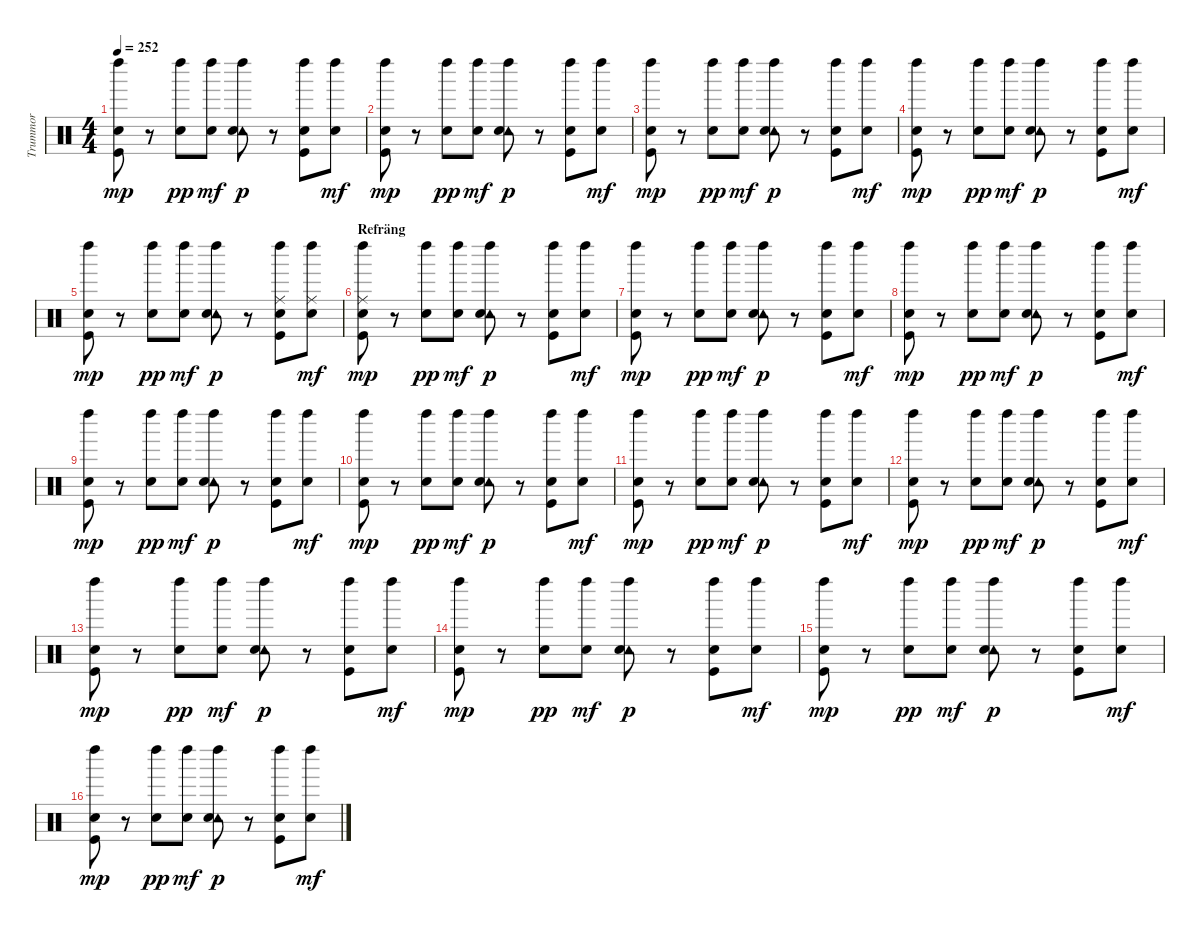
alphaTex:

\track ("Trummor" "Trummor") {instrument percussion}
\staff {score}
\articulation defaults
\ts (4 4)
\tempo 252
\clef neutral
\ks c
("Left Maraca (hit)" "Snare (hit) 2" "Kick (hit)").8{dy mp} r.8 ("Left Maraca (hit)" "Snare (hit) 2").8{dy pp} ("Left Maraca (hit)" "Snare (hit) 2").8{dy mf} ("Left Maraca (hit)" "Tambourine (hit)" "Snare (hit) 2").8{dy p} r.8 ("Left Maraca (hit)" "Snare (hit) 2" "Kick (hit)").8 ("Left Maraca (hit)" "Snare (hit) 2").8{dy mf} |
("Left Maraca (hit)" "Snare (hit) 2" "Kick (hit)").8{dy mp} r.8 ("Left Maraca (hit)" "Snare (hit) 2").8{dy pp} ("Left Maraca (hit)" "Snare (hit) 2").8{dy mf} ("Left Maraca (hit)" "Tambourine (hit)" "Snare (hit) 2").8{dy p} r.8 ("Left Maraca (hit)" "Snare (hit) 2" "Kick (hit)").8 ("Left Maraca (hit)" "Snare (hit) 2").8{dy mf} |
("Left Maraca (hit)" "Snare (hit) 2" "Kick (hit)").8{dy mp} r.8 ("Left Maraca (hit)" "Snare (hit) 2").8{dy pp} ("Left Maraca (hit)" "Snare (hit) 2").8{dy mf} ("Left Maraca (hit)" "Tambourine (hit)" "Snare (hit) 2").8{dy p} r.8 ("Left Maraca (hit)" "Snare (hit) 2" "Kick (hit)").8 ("Left Maraca (hit)" "Snare (hit) 2").8{dy mf} |
("Left Maraca (hit)" "Snare (hit) 2" "Kick (hit)").8{dy mp} r.8 ("Left Maraca (hit)" "Snare (hit) 2").8{dy pp} ("Left Maraca (hit)" "Snare (hit) 2").8{dy mf} ("Left Maraca (hit)" "Tambourine (hit)" "Snare (hit) 2").8{dy p} r.8 ("Left Maraca (hit)" "Snare (hit) 2" "Kick (hit)").8 ("Left Maraca (hit)" "Snare (hit) 2").8{dy mf} |
("Left Maraca (hit)" "Snare (hit) 2" "Kick (hit)").8{dy mp} r.8 ("Left Maraca (hit)" "Snare (hit) 2").8{dy pp} ("Left Maraca (hit)" "Snare (hit) 2").8{dy mf} ("Left Maraca (hit)" "Tambourine (hit)" "Snare (hit) 2").8{dy p} r.8 ("Left Maraca (hit)" "Ride (middle)" "Snare (hit) 2" "Kick (hit)").8 ("Left Maraca (hit)" "Ride (middle)" "Snare (hit) 2").8{dy mf} |
\section ("" "Refräng")
("Left Maraca (hit)" "Ride (middle)" "Snare (hit) 2" "Kick (hit)").8{dy mp} r.8 ("Left Maraca (hit)" "Snare (hit) 2").8{dy pp} ("Left Maraca (hit)" "Snare (hit) 2").8{dy mf} ("Left Maraca (hit)" "Tambourine (hit)" "Snare (hit) 2").8{dy p} r.8 ("Left Maraca (hit)" "Snare (hit) 2" "Kick (hit)").8 ("Left Maraca (hit)" "Snare (hit) 2").8{dy mf} |
("Left Maraca (hit)" "Snare (hit) 2" "Kick (hit)").8{dy mp} r.8 ("Left Maraca (hit)" "Snare (hit) 2").8{dy pp} ("Left Maraca (hit)" "Snare (hit) 2").8{dy mf} ("Left Maraca (hit)" "Tambourine (hit)" "Snare (hit) 2").8{dy p} r.8 ("Left Maraca (hit)" "Snare (hit) 2" "Kick (hit)").8 ("Left Maraca (hit)" "Snare (hit) 2").8{dy mf} |
("Left Maraca (hit)" "Snare (hit) 2" "Kick (hit)").8{dy mp} r.8 ("Left Maraca (hit)" "Snare (hit) 2").8{dy pp} ("Left Maraca (hit)" "Snare (hit) 2").8{dy mf} ("Left Maraca (hit)" "Tambourine (hit)" "Snare (hit) 2").8{dy p} r.8 ("Left Maraca (hit)" "Snare (hit) 2" "Kick (hit)").8 ("Left Maraca (hit)" "Snare (hit) 2").8{dy mf} |
("Left Maraca (hit)" "Snare (hit) 2" "Kick (hit)").8{dy mp} r.8 ("Left Maraca (hit)" "Snare (hit) 2").8{dy pp} ("Left Maraca (hit)" "Snare (hit) 2").8{dy mf} ("Left Maraca (hit)" "Tambourine (hit)" "Snare (hit) 2").8{dy p} r.8 ("Left Maraca (hit)" "Snare (hit) 2" "Kick (hit)").8 ("Left Maraca (hit)" "Snare (hit) 2").8{dy mf} |
("Left Maraca (hit)" "Snare (hit) 2" "Kick (hit)").8{dy mp} r.8 ("Left Maraca (hit)" "Snare (hit) 2").8{dy pp} ("Left Maraca (hit)" "Snare (hit) 2").8{dy mf} ("Left Maraca (hit)" "Tambourine (hit)" "Snare (hit) 2").8{dy p} r.8 ("Left Maraca (hit)" "Snare (hit) 2" "Kick (hit)").8 ("Left Maraca (hit)" "Snare (hit) 2").8{dy mf} |
("Left Maraca (hit)" "Snare (hit) 2" "Kick (hit)").8{dy mp} r.8 ("Left Maraca (hit)" "Snare (hit) 2").8{dy pp} ("Left Maraca (hit)" "Snare (hit) 2").8{dy mf} ("Left Maraca (hit)" "Tambourine (hit)" "Snare (hit) 2").8{dy p} r.8 ("Left Maraca (hit)" "Snare (hit) 2" "Kick (hit)").8 ("Left Maraca (hit)" "Snare (hit) 2").8{dy mf} |
("Left Maraca (hit)" "Snare (hit) 2" "Kick (hit)").8{dy mp} r.8 ("Left Maraca (hit)" "Snare (hit) 2").8{dy pp} ("Left Maraca (hit)" "Snare (hit) 2").8{dy mf} ("Left Maraca (hit)" "Tambourine (hit)" "Snare (hit) 2").8{dy p} r.8 ("Left Maraca (hit)" "Snare (hit) 2" "Kick (hit)").8 ("Left Maraca (hit)" "Snare (hit) 2").8{dy mf} |
("Left Maraca (hit)" "Snare (hit) 2" "Kick (hit)").8{dy mp} r.8 ("Left Maraca (hit)" "Snare (hit) 2").8{dy pp} ("Left Maraca (hit)" "Snare (hit) 2").8{dy mf} ("Left Maraca (hit)" "Tambourine (hit)" "Snare (hit) 2").8{dy p} r.8 ("Left Maraca (hit)" "Snare (hit) 2" "Kick (hit)").8 ("Left Maraca (hit)" "Snare (hit) 2").8{dy mf} |
("Left Maraca (hit)" "Snare (hit) 2" "Kick (hit)").8{dy mp} r.8 ("Left Maraca (hit)" "Snare (hit) 2").8{dy pp} ("Left Maraca (hit)" "Snare (hit) 2").8{dy mf} ("Left Maraca (hit)" "Tambourine (hit)" "Snare (hit) 2").8{dy p} r.8 ("Left Maraca (hit)" "Snare (hit) 2" "Kick (hit)").8 ("Left Maraca (hit)" "Snare (hit) 2").8{dy mf} |
("Left Maraca (hit)" "Snare (hit) 2" "Kick (hit)").8{dy mp} r.8 ("Left Maraca (hit)" "Snare (hit) 2").8{dy pp} ("Left Maraca (hit)" "Snare (hit) 2").8{dy mf} ("Left Maraca (hit)" "Tambourine (hit)" "Snare (hit) 2").8{dy p} r.8 ("Left Maraca (hit)" "Snare (hit) 2" "Kick (hit)").8 ("Left Maraca (hit)" "Snare (hit) 2").8{dy mf} |
("Left Maraca (hit)" "Snare (hit) 2" "Kick (hit)").8{dy mp} r.8 ("Left Maraca (hit)" "Snare (hit) 2").8{dy pp} ("Left Maraca (hit)" "Snare (hit) 2").8{dy mf} ("Left Maraca (hit)" "Tambourine (hit)" "Snare (hit) 2").8{dy p} r.8 ("Left Maraca (hit)" "Snare (hit) 2" "Kick (hit)").8 ("Left Maraca (hit)" "Snare (hit) 2").8{dy mf}
